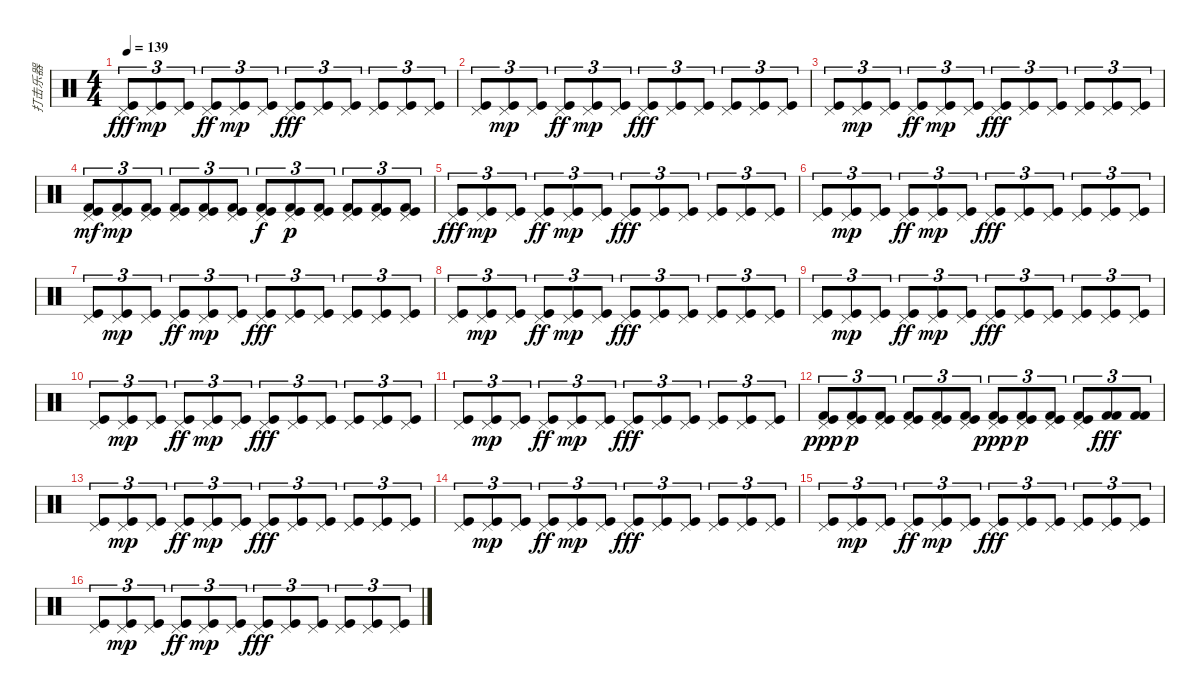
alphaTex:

\track ("打击乐器" "打击乐器") {instrument percussion}
\staff {score}
\articulation defaults
\ts (4 4)
\tempo 139
\clef neutral
\ks c
("Kick (hit)" "Pedal Hi-Hat (hit)").8{tu (3 2) dy fff} ("Kick (hit)" "Pedal Hi-Hat (hit)").8{tu (3 2) dy mp} ("Kick (hit)" "Pedal Hi-Hat (hit)").8{tu (3 2)} ("Kick (hit)" "Pedal Hi-Hat (hit)").8{tu (3 2) dy ff} ("Kick (hit)" "Pedal Hi-Hat (hit)").8{tu (3 2) dy mp} ("Kick (hit)" "Pedal Hi-Hat (hit)").8{tu (3 2)} ("Kick (hit)" "Pedal Hi-Hat (hit)").8{tu (3 2) dy fff} ("Kick (hit)" "Pedal Hi-Hat (hit)").8{tu (3 2)} ("Kick (hit)" "Pedal Hi-Hat (hit)").8{tu (3 2)} ("Kick (hit)" "Pedal Hi-Hat (hit)").8{tu (3 2)} ("Kick (hit)" "Pedal Hi-Hat (hit)").8{tu (3 2)} ("Kick (hit)" "Pedal Hi-Hat (hit)").8{tu (3 2)} |
("Kick (hit)" "Pedal Hi-Hat (hit)").8{tu (3 2)} ("Kick (hit)" "Pedal Hi-Hat (hit)").8{tu (3 2) dy mp} ("Kick (hit)" "Pedal Hi-Hat (hit)").8{tu (3 2)} ("Kick (hit)" "Pedal Hi-Hat (hit)").8{tu (3 2) dy ff} ("Kick (hit)" "Pedal Hi-Hat (hit)").8{tu (3 2) dy mp} ("Kick (hit)" "Pedal Hi-Hat (hit)").8{tu (3 2)} ("Kick (hit)" "Pedal Hi-Hat (hit)").8{tu (3 2) dy fff} ("Kick (hit)" "Pedal Hi-Hat (hit)").8{tu (3 2)} ("Kick (hit)" "Pedal Hi-Hat (hit)").8{tu (3 2)} ("Kick (hit)" "Pedal Hi-Hat (hit)").8{tu (3 2)} ("Kick (hit)" "Pedal Hi-Hat (hit)").8{tu (3 2)} ("Kick (hit)" "Pedal Hi-Hat (hit)").8{tu (3 2)} |
("Kick (hit)" "Pedal Hi-Hat (hit)").8{tu (3 2)} ("Kick (hit)" "Pedal Hi-Hat (hit)").8{tu (3 2) dy mp} ("Kick (hit)" "Pedal Hi-Hat (hit)").8{tu (3 2)} ("Kick (hit)" "Pedal Hi-Hat (hit)").8{tu (3 2) dy ff} ("Kick (hit)" "Pedal Hi-Hat (hit)").8{tu (3 2) dy mp} ("Kick (hit)" "Pedal Hi-Hat (hit)").8{tu (3 2)} ("Kick (hit)" "Pedal Hi-Hat (hit)").8{tu (3 2) dy fff} ("Kick (hit)" "Pedal Hi-Hat (hit)").8{tu (3 2)} ("Kick (hit)" "Pedal Hi-Hat (hit)").8{tu (3 2)} ("Kick (hit)" "Pedal Hi-Hat (hit)").8{tu (3 2)} ("Kick (hit)" "Pedal Hi-Hat (hit)").8{tu (3 2)} ("Kick (hit)" "Pedal Hi-Hat (hit)").8{tu (3 2)} |
("Kick (hit)" "Pedal Hi-Hat (hit)" "Kick (hit) 2").8{tu (3 2) dy mf} ("Kick (hit)" "Pedal Hi-Hat (hit)" "Kick (hit) 2").8{tu (3 2) dy mp} ("Kick (hit)" "Pedal Hi-Hat (hit)" "Kick (hit) 2").8{tu (3 2)} ("Kick (hit)" "Pedal Hi-Hat (hit)" "Kick (hit) 2").8{tu (3 2)} ("Kick (hit)" "Pedal Hi-Hat (hit)" "Kick (hit) 2").8{tu (3 2)} ("Kick (hit)" "Pedal Hi-Hat (hit)" "Kick (hit) 2").8{tu (3 2)} ("Kick (hit)" "Pedal Hi-Hat (hit)" "Kick (hit) 2").8{tu (3 2) dy f} ("Kick (hit)" "Pedal Hi-Hat (hit)" "Kick (hit) 2").8{tu (3 2) dy p} ("Kick (hit)" "Pedal Hi-Hat (hit)" "Kick (hit) 2").8{tu (3 2)} ("Kick (hit)" "Pedal Hi-Hat (hit)" "Kick (hit) 2").8{tu (3 2)} ("Kick (hit)" "Pedal Hi-Hat (hit)" "Kick (hit) 2").8{tu (3 2)} ("Kick (hit)" "Pedal Hi-Hat (hit)" "Kick (hit) 2").8{tu (3 2)} |
("Kick (hit)" "Pedal Hi-Hat (hit)").8{tu (3 2) dy fff} ("Kick (hit)" "Pedal Hi-Hat (hit)").8{tu (3 2) dy mp} ("Kick (hit)" "Pedal Hi-Hat (hit)").8{tu (3 2)} ("Kick (hit)" "Pedal Hi-Hat (hit)").8{tu (3 2) dy ff} ("Kick (hit)" "Pedal Hi-Hat (hit)").8{tu (3 2) dy mp} ("Kick (hit)" "Pedal Hi-Hat (hit)").8{tu (3 2)} ("Kick (hit)" "Pedal Hi-Hat (hit)").8{tu (3 2) dy fff} ("Kick (hit)" "Pedal Hi-Hat (hit)").8{tu (3 2)} ("Kick (hit)" "Pedal Hi-Hat (hit)").8{tu (3 2)} ("Kick (hit)" "Pedal Hi-Hat (hit)").8{tu (3 2)} ("Kick (hit)" "Pedal Hi-Hat (hit)").8{tu (3 2)} ("Kick (hit)" "Pedal Hi-Hat (hit)").8{tu (3 2)} |
("Kick (hit)" "Pedal Hi-Hat (hit)").8{tu (3 2)} ("Kick (hit)" "Pedal Hi-Hat (hit)").8{tu (3 2) dy mp} ("Kick (hit)" "Pedal Hi-Hat (hit)").8{tu (3 2)} ("Kick (hit)" "Pedal Hi-Hat (hit)").8{tu (3 2) dy ff} ("Kick (hit)" "Pedal Hi-Hat (hit)").8{tu (3 2) dy mp} ("Kick (hit)" "Pedal Hi-Hat (hit)").8{tu (3 2)} ("Kick (hit)" "Pedal Hi-Hat (hit)").8{tu (3 2) dy fff} ("Kick (hit)" "Pedal Hi-Hat (hit)").8{tu (3 2)} ("Kick (hit)" "Pedal Hi-Hat (hit)").8{tu (3 2)} ("Kick (hit)" "Pedal Hi-Hat (hit)").8{tu (3 2)} ("Kick (hit)" "Pedal Hi-Hat (hit)").8{tu (3 2)} ("Kick (hit)" "Pedal Hi-Hat (hit)").8{tu (3 2)} |
("Kick (hit)" "Pedal Hi-Hat (hit)").8{tu (3 2)} ("Kick (hit)" "Pedal Hi-Hat (hit)").8{tu (3 2) dy mp} ("Kick (hit)" "Pedal Hi-Hat (hit)").8{tu (3 2)} ("Kick (hit)" "Pedal Hi-Hat (hit)").8{tu (3 2) dy ff} ("Kick (hit)" "Pedal Hi-Hat (hit)").8{tu (3 2) dy mp} ("Kick (hit)" "Pedal Hi-Hat (hit)").8{tu (3 2)} ("Kick (hit)" "Pedal Hi-Hat (hit)").8{tu (3 2) dy fff} ("Kick (hit)" "Pedal Hi-Hat (hit)").8{tu (3 2)} ("Kick (hit)" "Pedal Hi-Hat (hit)").8{tu (3 2)} ("Kick (hit)" "Pedal Hi-Hat (hit)").8{tu (3 2)} ("Kick (hit)" "Pedal Hi-Hat (hit)").8{tu (3 2)} ("Kick (hit)" "Pedal Hi-Hat (hit)").8{tu (3 2)} |
("Kick (hit)" "Pedal Hi-Hat (hit)").8{tu (3 2)} ("Kick (hit)" "Pedal Hi-Hat (hit)").8{tu (3 2) dy mp} ("Kick (hit)" "Pedal Hi-Hat (hit)").8{tu (3 2)} ("Kick (hit)" "Pedal Hi-Hat (hit)").8{tu (3 2) dy ff} ("Kick (hit)" "Pedal Hi-Hat (hit)").8{tu (3 2) dy mp} ("Kick (hit)" "Pedal Hi-Hat (hit)").8{tu (3 2)} ("Kick (hit)" "Pedal Hi-Hat (hit)").8{tu (3 2) dy fff} ("Kick (hit)" "Pedal Hi-Hat (hit)").8{tu (3 2)} ("Kick (hit)" "Pedal Hi-Hat (hit)").8{tu (3 2)} ("Kick (hit)" "Pedal Hi-Hat (hit)").8{tu (3 2)} ("Kick (hit)" "Pedal Hi-Hat (hit)").8{tu (3 2)} ("Kick (hit)" "Pedal Hi-Hat (hit)").8{tu (3 2)} |
("Kick (hit)" "Pedal Hi-Hat (hit)").8{tu (3 2)} ("Kick (hit)" "Pedal Hi-Hat (hit)").8{tu (3 2) dy mp} ("Kick (hit)" "Pedal Hi-Hat (hit)").8{tu (3 2)} ("Kick (hit)" "Pedal Hi-Hat (hit)").8{tu (3 2) dy ff} ("Kick (hit)" "Pedal Hi-Hat (hit)").8{tu (3 2) dy mp} ("Kick (hit)" "Pedal Hi-Hat (hit)").8{tu (3 2)} ("Kick (hit)" "Pedal Hi-Hat (hit)").8{tu (3 2) dy fff} ("Kick (hit)" "Pedal Hi-Hat (hit)").8{tu (3 2)} ("Kick (hit)" "Pedal Hi-Hat (hit)").8{tu (3 2)} ("Kick (hit)" "Pedal Hi-Hat (hit)").8{tu (3 2)} ("Kick (hit)" "Pedal Hi-Hat (hit)").8{tu (3 2)} ("Kick (hit)" "Pedal Hi-Hat (hit)").8{tu (3 2)} |
("Kick (hit)" "Pedal Hi-Hat (hit)").8{tu (3 2)} ("Kick (hit)" "Pedal Hi-Hat (hit)").8{tu (3 2) dy mp} ("Kick (hit)" "Pedal Hi-Hat (hit)").8{tu (3 2)} ("Kick (hit)" "Pedal Hi-Hat (hit)").8{tu (3 2) dy ff} ("Kick (hit)" "Pedal Hi-Hat (hit)").8{tu (3 2) dy mp} ("Kick (hit)" "Pedal Hi-Hat (hit)").8{tu (3 2)} ("Kick (hit)" "Pedal Hi-Hat (hit)").8{tu (3 2) dy fff} ("Kick (hit)" "Pedal Hi-Hat (hit)").8{tu (3 2)} ("Kick (hit)" "Pedal Hi-Hat (hit)").8{tu (3 2)} ("Kick (hit)" "Pedal Hi-Hat (hit)").8{tu (3 2)} ("Kick (hit)" "Pedal Hi-Hat (hit)").8{tu (3 2)} ("Kick (hit)" "Pedal Hi-Hat (hit)").8{tu (3 2)} |
("Kick (hit)" "Pedal Hi-Hat (hit)").8{tu (3 2)} ("Kick (hit)" "Pedal Hi-Hat (hit)").8{tu (3 2) dy mp} ("Kick (hit)" "Pedal Hi-Hat (hit)").8{tu (3 2)} ("Kick (hit)" "Pedal Hi-Hat (hit)").8{tu (3 2) dy ff} ("Kick (hit)" "Pedal Hi-Hat (hit)").8{tu (3 2) dy mp} ("Kick (hit)" "Pedal Hi-Hat (hit)").8{tu (3 2)} ("Kick (hit)" "Pedal Hi-Hat (hit)").8{tu (3 2) dy fff} ("Kick (hit)" "Pedal Hi-Hat (hit)").8{tu (3 2)} ("Kick (hit)" "Pedal Hi-Hat (hit)").8{tu (3 2)} ("Kick (hit)" "Pedal Hi-Hat (hit)").8{tu (3 2)} ("Kick (hit)" "Pedal Hi-Hat (hit)").8{tu (3 2)} ("Kick (hit)" "Pedal Hi-Hat (hit)").8{tu (3 2)} |
("Kick (hit)" "Pedal Hi-Hat (hit)" "Kick (hit) 2").8{tu (3 2) dy ppp} ("Kick (hit)" "Pedal Hi-Hat (hit)" "Kick (hit) 2").8{tu (3 2) dy p} ("Kick (hit)" "Pedal Hi-Hat (hit)" "Kick (hit) 2").8{tu (3 2)} ("Kick (hit)" "Pedal Hi-Hat (hit)" "Kick (hit) 2").8{tu (3 2)} ("Kick (hit)" "Pedal Hi-Hat (hit)" "Kick (hit) 2").8{tu (3 2)} ("Kick (hit)" "Pedal Hi-Hat (hit)" "Kick (hit) 2").8{tu (3 2)} ("Kick (hit)" "Pedal Hi-Hat (hit)" "Kick (hit) 2").8{tu (3 2) dy ppp} ("Kick (hit)" "Pedal Hi-Hat (hit)" "Kick (hit) 2").8{tu (3 2) dy p} ("Kick (hit)" "Pedal Hi-Hat (hit)" "Kick (hit) 2").8{tu (3 2)} ("Kick (hit)" "Pedal Hi-Hat (hit)" "Kick (hit) 2").8{tu (3 2)} ("Kick (hit) 2" "Kick (hit) 2").8{tu (3 2) dy fff} ("Kick (hit) 2" "Kick (hit) 2").8{tu (3 2)} |
("Kick (hit)" "Pedal Hi-Hat (hit)").8{tu (3 2)} ("Kick (hit)" "Pedal Hi-Hat (hit)").8{tu (3 2) dy mp} ("Kick (hit)" "Pedal Hi-Hat (hit)").8{tu (3 2)} ("Kick (hit)" "Pedal Hi-Hat (hit)").8{tu (3 2) dy ff} ("Kick (hit)" "Pedal Hi-Hat (hit)").8{tu (3 2) dy mp} ("Kick (hit)" "Pedal Hi-Hat (hit)").8{tu (3 2)} ("Kick (hit)" "Pedal Hi-Hat (hit)").8{tu (3 2) dy fff} ("Kick (hit)" "Pedal Hi-Hat (hit)").8{tu (3 2)} ("Kick (hit)" "Pedal Hi-Hat (hit)").8{tu (3 2)} ("Kick (hit)" "Pedal Hi-Hat (hit)").8{tu (3 2)} ("Kick (hit)" "Pedal Hi-Hat (hit)").8{tu (3 2)} ("Kick (hit)" "Pedal Hi-Hat (hit)").8{tu (3 2)} |
("Kick (hit)" "Pedal Hi-Hat (hit)").8{tu (3 2)} ("Kick (hit)" "Pedal Hi-Hat (hit)").8{tu (3 2) dy mp} ("Kick (hit)" "Pedal Hi-Hat (hit)").8{tu (3 2)} ("Kick (hit)" "Pedal Hi-Hat (hit)").8{tu (3 2) dy ff} ("Kick (hit)" "Pedal Hi-Hat (hit)").8{tu (3 2) dy mp} ("Kick (hit)" "Pedal Hi-Hat (hit)").8{tu (3 2)} ("Kick (hit)" "Pedal Hi-Hat (hit)").8{tu (3 2) dy fff} ("Kick (hit)" "Pedal Hi-Hat (hit)").8{tu (3 2)} ("Kick (hit)" "Pedal Hi-Hat (hit)").8{tu (3 2)} ("Kick (hit)" "Pedal Hi-Hat (hit)").8{tu (3 2)} ("Kick (hit)" "Pedal Hi-Hat (hit)").8{tu (3 2)} ("Kick (hit)" "Pedal Hi-Hat (hit)").8{tu (3 2)} |
("Kick (hit)" "Pedal Hi-Hat (hit)").8{tu (3 2)} ("Kick (hit)" "Pedal Hi-Hat (hit)").8{tu (3 2) dy mp} ("Kick (hit)" "Pedal Hi-Hat (hit)").8{tu (3 2)} ("Kick (hit)" "Pedal Hi-Hat (hit)").8{tu (3 2) dy ff} ("Kick (hit)" "Pedal Hi-Hat (hit)").8{tu (3 2) dy mp} ("Kick (hit)" "Pedal Hi-Hat (hit)").8{tu (3 2)} ("Kick (hit)" "Pedal Hi-Hat (hit)").8{tu (3 2) dy fff} ("Kick (hit)" "Pedal Hi-Hat (hit)").8{tu (3 2)} ("Kick (hit)" "Pedal Hi-Hat (hit)").8{tu (3 2)} ("Kick (hit)" "Pedal Hi-Hat (hit)").8{tu (3 2)} ("Kick (hit)" "Pedal Hi-Hat (hit)").8{tu (3 2)} ("Kick (hit)" "Pedal Hi-Hat (hit)").8{tu (3 2)} |
("Kick (hit)" "Pedal Hi-Hat (hit)").8{tu (3 2)} ("Kick (hit)" "Pedal Hi-Hat (hit)").8{tu (3 2) dy mp} ("Kick (hit)" "Pedal Hi-Hat (hit)").8{tu (3 2)} ("Kick (hit)" "Pedal Hi-Hat (hit)").8{tu (3 2) dy ff} ("Kick (hit)" "Pedal Hi-Hat (hit)").8{tu (3 2) dy mp} ("Kick (hit)" "Pedal Hi-Hat (hit)").8{tu (3 2)} ("Kick (hit)" "Pedal Hi-Hat (hit)").8{tu (3 2) dy fff} ("Kick (hit)" "Pedal Hi-Hat (hit)").8{tu (3 2)} ("Kick (hit)" "Pedal Hi-Hat (hit)").8{tu (3 2)} ("Kick (hit)" "Pedal Hi-Hat (hit)").8{tu (3 2)} ("Kick (hit)" "Pedal Hi-Hat (hit)").8{tu (3 2)} ("Kick (hit)" "Pedal Hi-Hat (hit)").8{tu (3 2)}
